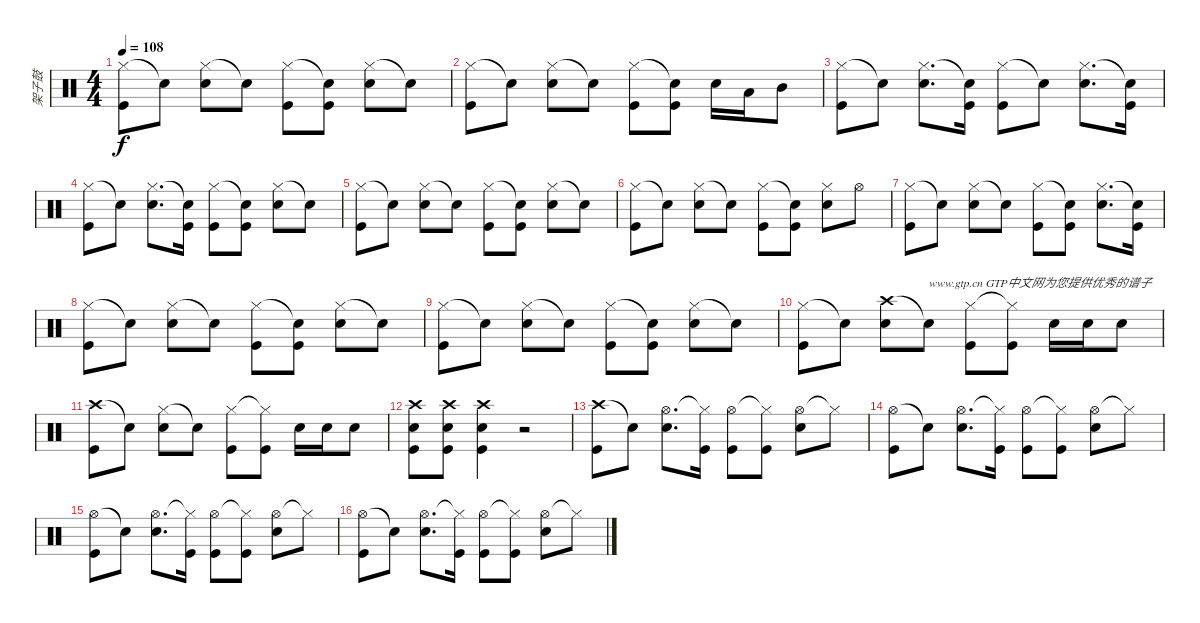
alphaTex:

\track ("架子鼓" "架子鼓") {instrument percussion}
\staff {score}
\articulation defaults
\ts (4 4)
\tempo 108
\clef neutral
\ks c
("Hi-Hat (closed)" "Kick (hit)").8{dy f} "Snare (hit)"{t}.8 ("Hi-Hat (closed)" "Snare (hit) 2").8 "Snare (hit)"{t}.8 ("Hi-Hat (closed)" "Kick (hit)").8 ("Snare (hit)"{t} "Kick (hit)").8 ("Hi-Hat (closed)" "Snare (hit) 2").8 "Snare (hit)"{t}.8 |
("Hi-Hat (closed)" "Kick (hit)").8 "Snare (hit)"{t}.8 ("Hi-Hat (closed)" "Snare (hit) 2").8 "Snare (hit)"{t}.8 ("Hi-Hat (closed)" "Kick (hit)").8 ("Snare (hit)"{t} "Kick (hit)").8 "Snare (hit) 2".16 "Low Tom (hit)".16 "Mid Tom (hit)".8 |
("Hi-Hat (closed)" "Kick (hit)").8 "Snare (hit)"{t}.8 ("Hi-Hat (closed)" "Snare (hit) 2").8{d} ("Snare (hit)"{t} "Kick (hit)").16 ("Hi-Hat (closed)" "Kick (hit)").8 "Snare (hit)"{t}.8 ("Hi-Hat (closed)" "Snare (hit) 2").8{d} ("Snare (hit)"{t} "Kick (hit)").16 |
("Hi-Hat (closed)" "Kick (hit)").8 "Snare (hit)"{t}.8 ("Hi-Hat (closed)" "Snare (hit) 2").8{d} ("Snare (hit)"{t} "Kick (hit)").16 ("Hi-Hat (closed)" "Kick (hit)").8 ("Snare (hit)"{t} "Kick (hit)").8 ("Hi-Hat (closed)" "Snare (hit) 2").8 "Snare (hit)"{t}.8 |
("Hi-Hat (closed)" "Kick (hit)").8 "Snare (hit)"{t}.8 ("Hi-Hat (closed)" "Snare (hit) 2").8 "Snare (hit)"{t}.8 ("Hi-Hat (closed)" "Kick (hit)").8 ("Snare (hit)"{t} "Kick (hit)").8 ("Hi-Hat (closed)" "Snare (hit) 2").8 "Snare (hit)"{t}.8 |
("Hi-Hat (closed)" "Kick (hit)").8 "Snare (hit)"{t}.8 ("Hi-Hat (closed)" "Snare (hit) 2").8 "Snare (hit)"{t}.8 ("Hi-Hat (closed)" "Kick (hit)").8 ("Snare (hit)"{t} "Kick (hit)").8 ("Hi-Hat (closed)" "Snare (hit) 2").8 "Hi-Hat (open)".8 |
("Hi-Hat (closed)" "Kick (hit)").8 "Snare (hit)"{t}.8 ("Hi-Hat (closed)" "Snare (hit) 2").8 "Snare (hit)"{t}.8 ("Hi-Hat (closed)" "Kick (hit)").8 ("Snare (hit)"{t} "Kick (hit)").8 ("Hi-Hat (closed)" "Snare (hit) 2").8{d} ("Snare (hit)"{t} "Kick (hit)").16 |
("Hi-Hat (closed)" "Kick (hit)").8 "Snare (hit)"{t}.8 ("Hi-Hat (closed)" "Snare (hit) 2").8 "Snare (hit)"{t}.8 ("Hi-Hat (closed)" "Kick (hit)").8 ("Snare (hit)"{t} "Kick (hit)").8 ("Hi-Hat (closed)" "Snare (hit) 2").8 "Snare (hit)"{t}.8 |
("Hi-Hat (closed)" "Kick (hit)").8 "Snare (hit)"{t}.8 ("Hi-Hat (closed)" "Snare (hit) 2").8 "Snare (hit)"{t}.8 ("Hi-Hat (closed)" "Kick (hit)").8 ("Snare (hit)"{t} "Kick (hit)").8 ("Hi-Hat (closed)" "Snare (hit) 2").8 "Snare (hit)"{t}.8 |
("Hi-Hat (closed)" "Kick (hit)").8 "Snare (hit)"{t}.8 ("Crash high (hit)" "Snare (hit) 2").8 "Snare (hit)"{t}.8{txt "www.gtp.cn GTP中文网为您提供优秀的谱子"} ("Hi-Hat (closed)" "Kick (hit)").8 ("Hi-Hat (closed)"{t} "Kick (hit)").8 "Snare (hit) 2".16 "Snare (hit) 2".16 "Snare (hit) 2".8 |
("Crash high (hit)" "Kick (hit)").8 "Snare (hit)"{t}.8 ("Hi-Hat (closed)" "Snare (hit) 2").8 "Snare (hit)"{t}.8 ("Hi-Hat (closed)" "Kick (hit)").8 ("Hi-Hat (closed)"{t} "Kick (hit)").8 "Snare (hit) 2".16 "Snare (hit) 2".16 "Snare (hit) 2".8 |
("Crash high (hit)" "Snare (hit) 2" "Kick (hit)").8 ("Crash high (hit)" "Snare (hit) 2" "Kick (hit)").8 ("Crash high (hit)" "Snare (hit) 2" "Kick (hit)").4 r.2 |
("Crash high (hit)" "Kick (hit)").8 "Snare (hit)"{t}.8 ("Hi-Hat (open)" "Snare (hit) 2").8{d} ("Hi-Hat (closed)"{t} "Kick (hit)").16 ("Hi-Hat (open)" "Kick (hit)").8 ("Hi-Hat (closed)"{t} "Kick (hit)").8 ("Hi-Hat (open)" "Snare (hit) 2").8 "Hi-Hat (closed)"{t}.8 |
("Hi-Hat (open)" "Kick (hit)").8 "Snare (hit)"{t}.8 ("Hi-Hat (open)" "Snare (hit) 2").8{d} ("Hi-Hat (closed)"{t} "Kick (hit)").16 ("Hi-Hat (open)" "Kick (hit)").8 ("Hi-Hat (closed)"{t} "Kick (hit)").8 ("Hi-Hat (open)" "Snare (hit) 2").8 "Hi-Hat (closed)"{t}.8 |
("Hi-Hat (open)" "Kick (hit)").8 "Snare (hit)"{t}.8 ("Hi-Hat (open)" "Snare (hit) 2").8{d} ("Hi-Hat (closed)"{t} "Kick (hit)").16 ("Hi-Hat (open)" "Kick (hit)").8 ("Hi-Hat (closed)"{t} "Kick (hit)").8 ("Hi-Hat (open)" "Snare (hit) 2").8 "Hi-Hat (closed)"{t}.8 |
("Hi-Hat (open)" "Kick (hit)").8 "Snare (hit)"{t}.8 ("Hi-Hat (open)" "Snare (hit) 2").8{d} ("Hi-Hat (closed)"{t} "Kick (hit)").16 ("Hi-Hat (open)" "Kick (hit)").8 ("Hi-Hat (closed)"{t} "Kick (hit)").8 ("Hi-Hat (open)" "Snare (hit) 2").8 "Hi-Hat (closed)"{t}.8
